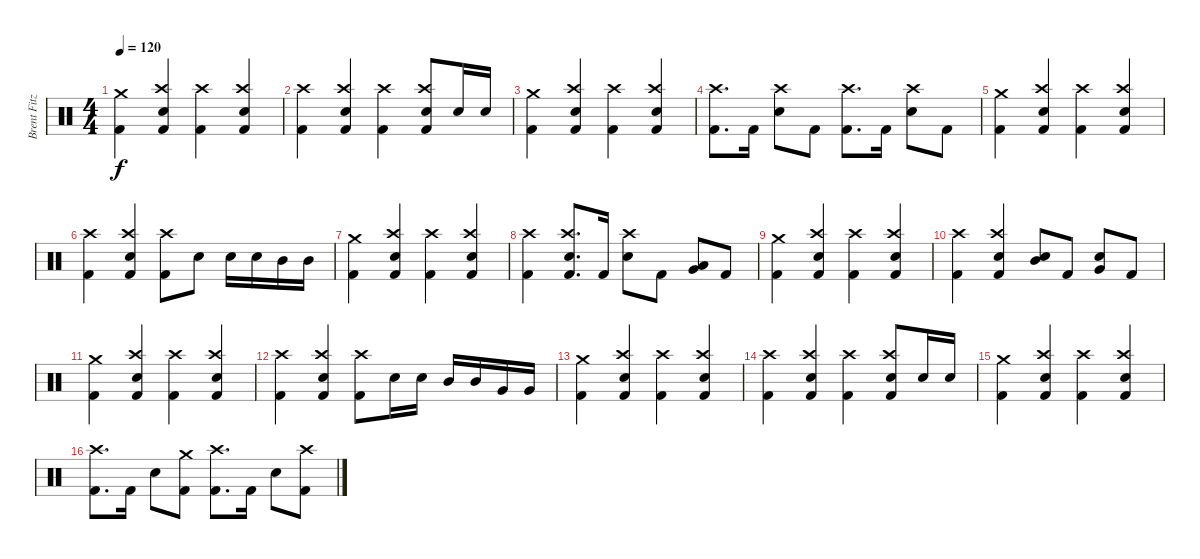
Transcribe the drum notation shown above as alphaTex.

\track ("Brent Fitz" "Brent Fitz") {instrument percussion}
\staff {score}
\articulation defaults
\ts (4 4)
\tempo 120
\clef neutral
\ks c
("Crash medium (hit)" "Kick (hit) 2").4{dy f} ("Crash high (hit)" "Electric Snare (hit)" "Kick (hit) 2").4 ("Crash high (hit)" "Kick (hit) 2").4 ("Crash high (hit)" "Electric Snare (hit)" "Kick (hit) 2").4 |
("Crash high (hit)" "Kick (hit) 2").4 ("Crash high (hit)" "Electric Snare (hit)" "Kick (hit) 2").4 ("Crash high (hit)" "Kick (hit) 2").4 ("Crash high (hit)" "Electric Snare (hit)" "Kick (hit) 2").8 "Electric Snare (hit)".16 "Electric Snare (hit)".16 |
("Crash medium (hit)" "Kick (hit) 2").4 ("Crash high (hit)" "Electric Snare (hit)" "Kick (hit) 2").4 ("Crash high (hit)" "Kick (hit) 2").4 ("Crash high (hit)" "Electric Snare (hit)" "Kick (hit) 2").4 |
("Crash high (hit)" "Kick (hit) 2").8{d} "Kick (hit) 2".16 ("Crash high (hit)" "Electric Snare (hit)").8 "Kick (hit) 2".8 ("Crash high (hit)" "Kick (hit) 2").8{d} "Kick (hit) 2".16 ("Crash high (hit)" "Electric Snare (hit)").8 "Kick (hit) 2".8 |
("Crash medium (hit)" "Kick (hit) 2").4 ("Crash high (hit)" "Electric Snare (hit)" "Kick (hit) 2").4 ("Crash high (hit)" "Kick (hit) 2").4 ("Crash high (hit)" "Electric Snare (hit)" "Kick (hit) 2").4 |
("Crash high (hit)" "Kick (hit) 2").4 ("Crash high (hit)" "Electric Snare (hit)" "Kick (hit) 2").4 ("Crash high (hit)" "Kick (hit) 2").8 "Electric Snare (hit)".8 "Electric Snare (hit)".16 "Electric Snare (hit)".16 "Mid Tom (hit)".16 "Mid Tom (hit)".16 |
("Crash medium (hit)" "Kick (hit) 2").4 ("Crash high (hit)" "Electric Snare (hit)" "Kick (hit) 2").4 ("Crash high (hit)" "Kick (hit) 2").4 ("Crash high (hit)" "Electric Snare (hit)" "Kick (hit) 2").4 |
("Crash high (hit)" "Kick (hit) 2").4 ("Crash high (hit)" "Electric Snare (hit)" "Kick (hit) 2").8{d} "Kick (hit) 2".16 ("Crash high (hit)" "Electric Snare (hit)").8 "Kick (hit) 2".8 ("Low Tom (hit)" "Very Low Tom (hit)").8 "Kick (hit) 2".8 |
("Crash medium (hit)" "Kick (hit) 2").4 ("Crash high (hit)" "Electric Snare (hit)" "Kick (hit) 2").4 ("Crash high (hit)" "Kick (hit) 2").4 ("Crash high (hit)" "Electric Snare (hit)" "Kick (hit) 2").4 |
("Crash high (hit)" "Kick (hit) 2").4 ("Crash high (hit)" "Electric Snare (hit)" "Kick (hit) 2").4 ("Mid Tom (hit)" "Electric Snare (hit)").8 "Kick (hit) 2".8 ("Electric Snare (hit)" "Very Low Tom (hit)").8 "Kick (hit) 2".8 |
("Crash medium (hit)" "Kick (hit) 2").4 ("Crash high (hit)" "Electric Snare (hit)" "Kick (hit) 2").4 ("Crash high (hit)" "Kick (hit) 2").4 ("Crash high (hit)" "Electric Snare (hit)" "Kick (hit) 2").4 |
("Crash high (hit)" "Kick (hit) 2").4 ("Crash high (hit)" "Electric Snare (hit)" "Kick (hit) 2").4 ("Crash high (hit)" "Kick (hit) 2").8 "Electric Snare (hit)".16 "Electric Snare (hit)".16 "Mid Tom (hit)".16 "Mid Tom (hit)".16 "Very Low Tom (hit)".16 "Very Low Tom (hit)".16 |
("Crash medium (hit)" "Kick (hit) 2").4 ("Crash high (hit)" "Electric Snare (hit)" "Kick (hit) 2").4 ("Crash high (hit)" "Kick (hit) 2").4 ("Crash high (hit)" "Electric Snare (hit)" "Kick (hit) 2").4 |
("Crash high (hit)" "Kick (hit) 2").4 ("Crash high (hit)" "Electric Snare (hit)" "Kick (hit) 2").4 ("Crash high (hit)" "Kick (hit) 2").4 ("Crash high (hit)" "Electric Snare (hit)" "Kick (hit) 2").8 "Electric Snare (hit)".16 "Electric Snare (hit)".16 |
("Crash medium (hit)" "Kick (hit) 2").4 ("Crash high (hit)" "Electric Snare (hit)" "Kick (hit) 2").4 ("Crash high (hit)" "Kick (hit) 2").4 ("Crash high (hit)" "Electric Snare (hit)" "Kick (hit) 2").4 |
("Crash high (hit)" "Kick (hit) 2").8{d} "Kick (hit) 2".16 "Electric Snare (hit)".8 ("Crash medium (hit)" "Kick (hit) 2").8 ("Crash high (hit)" "Kick (hit) 2").8{d} "Kick (hit) 2".16 "Electric Snare (hit)".8 ("Crash high (hit)" "Kick (hit) 2").8
